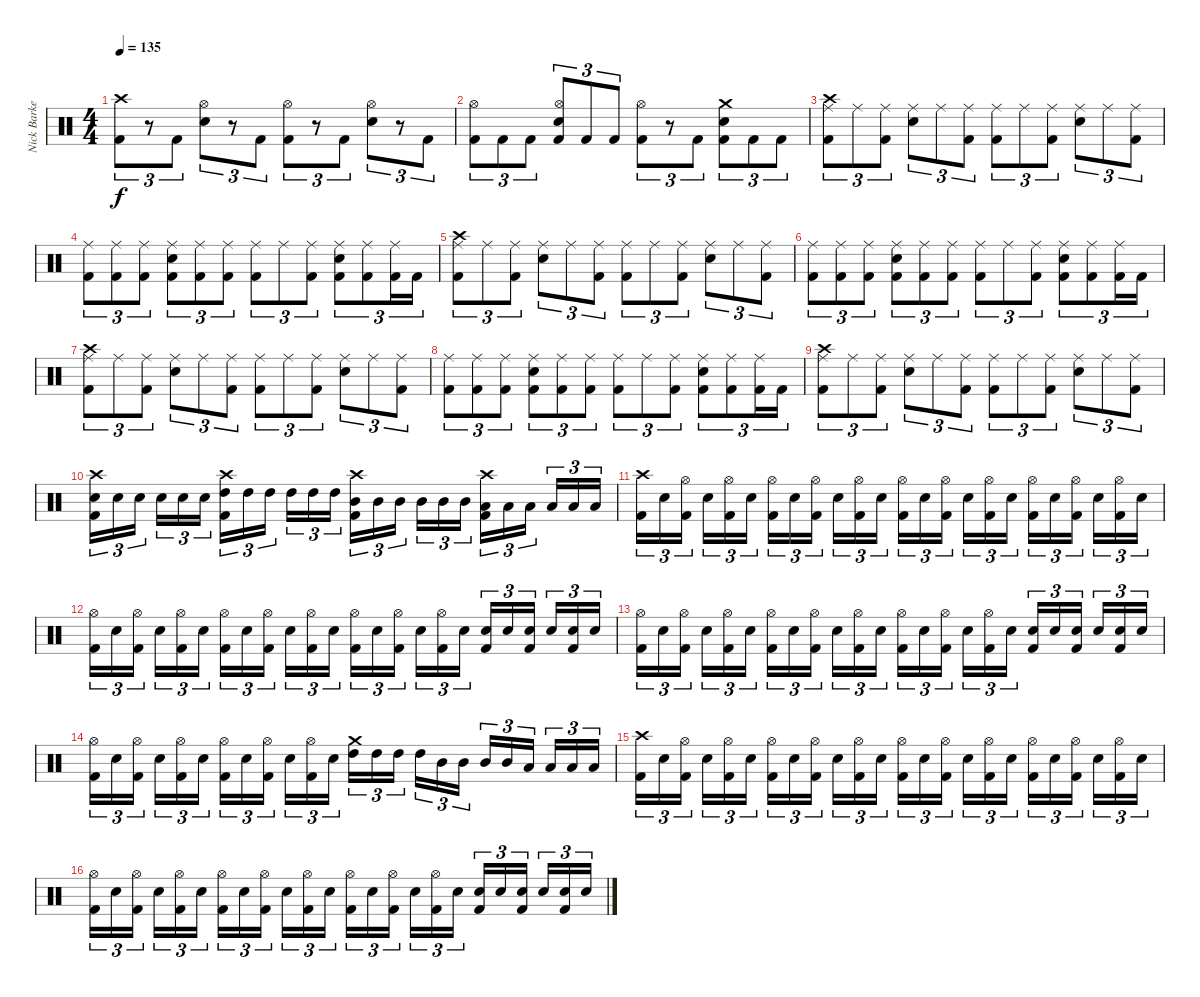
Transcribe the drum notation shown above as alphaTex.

\track ("Nick Barker" "Nick Barke") {instrument percussion}
\staff {score}
\articulation defaults
\ts (4 4)
\tempo 135
\clef neutral
\ks c
("Crash high (hit)" "Kick (hit) 2").8{tu (3 2) dy f} r.8{tu (3 2)} "Kick (hit) 2".8{tu (3 2)} ("Hi-Hat (open)" "Electric Snare (hit)").8{tu (3 2)} r.8{tu (3 2)} "Kick (hit) 2".8{tu (3 2)} ("Hi-Hat (open)" "Kick (hit) 2").8{tu (3 2)} r.8{tu (3 2)} "Kick (hit) 2".8{tu (3 2)} ("Hi-Hat (open)" "Electric Snare (hit)").8{tu (3 2)} r.8{tu (3 2)} "Kick (hit) 2".8{tu (3 2)} |
("Hi-Hat (open)" "Kick (hit) 2").8{tu (3 2)} "Kick (hit) 2".8{tu (3 2)} "Kick (hit) 2".8{tu (3 2)} ("Hi-Hat (open)" "Electric Snare (hit)" "Kick (hit) 2").8{tu (3 2)} "Kick (hit) 2".8{tu (3 2)} "Kick (hit) 2".8{tu (3 2)} ("Hi-Hat (open)" "Kick (hit) 2").8{tu (3 2)} r.8{tu (3 2)} "Kick (hit) 2".8{tu (3 2)} ("Crash medium (hit)" "Electric Snare (hit)" "Kick (hit) 2").8{tu (3 2)} "Kick (hit) 2".8{tu (3 2)} "Kick (hit) 2".8{tu (3 2)} |
("Crash high (hit)" "Ride (middle)" "Kick (hit) 2").8{tu (3 2)} "Ride (middle)".8{tu (3 2)} ("Ride (middle)" "Kick (hit) 2").8{tu (3 2)} ("Ride (middle)" "Electric Snare (hit)").8{tu (3 2)} "Ride (middle)".8{tu (3 2)} ("Ride (middle)" "Kick (hit) 2").8{tu (3 2)} ("Ride (middle)" "Kick (hit) 2").8{tu (3 2)} "Ride (middle)".8{tu (3 2)} ("Ride (middle)" "Kick (hit) 2").8{tu (3 2)} ("Ride (middle)" "Electric Snare (hit)").8{tu (3 2)} "Ride (middle)".8{tu (3 2)} ("Ride (middle)" "Kick (hit) 2").8{tu (3 2)} |
("Ride (middle)" "Kick (hit) 2").8{tu (3 2)} ("Ride (middle)" "Kick (hit) 2").8{tu (3 2)} ("Ride (middle)" "Kick (hit) 2").8{tu (3 2)} ("Ride (middle)" "Electric Snare (hit)" "Kick (hit) 2").8{tu (3 2)} ("Ride (middle)" "Kick (hit) 2").8{tu (3 2)} ("Ride (middle)" "Kick (hit) 2").8{tu (3 2)} ("Ride (middle)" "Kick (hit) 2").8{tu (3 2)} "Ride (middle)".8{tu (3 2)} ("Ride (middle)" "Kick (hit) 2").8{tu (3 2)} ("Ride (middle)" "Electric Snare (hit)" "Kick (hit) 2").8{tu (3 2)} ("Ride (middle)" "Kick (hit) 2").8{tu (3 2)} ("Ride (middle)" "Kick (hit) 2").16{tu (3 2)} "Kick (hit) 2".16{tu (3 2)} |
("Crash high (hit)" "Ride (middle)" "Kick (hit) 2").8{tu (3 2)} "Ride (middle)".8{tu (3 2)} ("Ride (middle)" "Kick (hit) 2").8{tu (3 2)} ("Ride (middle)" "Electric Snare (hit)").8{tu (3 2)} "Ride (middle)".8{tu (3 2)} ("Ride (middle)" "Kick (hit) 2").8{tu (3 2)} ("Ride (middle)" "Kick (hit) 2").8{tu (3 2)} "Ride (middle)".8{tu (3 2)} ("Ride (middle)" "Kick (hit) 2").8{tu (3 2)} ("Ride (middle)" "Electric Snare (hit)").8{tu (3 2)} "Ride (middle)".8{tu (3 2)} ("Ride (middle)" "Kick (hit) 2").8{tu (3 2)} |
("Ride (middle)" "Kick (hit) 2").8{tu (3 2)} ("Ride (middle)" "Kick (hit) 2").8{tu (3 2)} ("Ride (middle)" "Kick (hit) 2").8{tu (3 2)} ("Ride (middle)" "Electric Snare (hit)" "Kick (hit) 2").8{tu (3 2)} ("Ride (middle)" "Kick (hit) 2").8{tu (3 2)} ("Ride (middle)" "Kick (hit) 2").8{tu (3 2)} ("Ride (middle)" "Kick (hit) 2").8{tu (3 2)} "Ride (middle)".8{tu (3 2)} ("Ride (middle)" "Kick (hit) 2").8{tu (3 2)} ("Ride (middle)" "Electric Snare (hit)" "Kick (hit) 2").8{tu (3 2)} ("Ride (middle)" "Kick (hit) 2").8{tu (3 2)} ("Ride (middle)" "Kick (hit) 2").16{tu (3 2)} "Kick (hit) 2".16{tu (3 2)} |
("Crash high (hit)" "Ride (middle)" "Kick (hit) 2").8{tu (3 2)} "Ride (middle)".8{tu (3 2)} ("Ride (middle)" "Kick (hit) 2").8{tu (3 2)} ("Ride (middle)" "Electric Snare (hit)").8{tu (3 2)} "Ride (middle)".8{tu (3 2)} ("Ride (middle)" "Kick (hit) 2").8{tu (3 2)} ("Ride (middle)" "Kick (hit) 2").8{tu (3 2)} "Ride (middle)".8{tu (3 2)} ("Ride (middle)" "Kick (hit) 2").8{tu (3 2)} ("Ride (middle)" "Electric Snare (hit)").8{tu (3 2)} "Ride (middle)".8{tu (3 2)} ("Ride (middle)" "Kick (hit) 2").8{tu (3 2)} |
("Ride (middle)" "Kick (hit) 2").8{tu (3 2)} ("Ride (middle)" "Kick (hit) 2").8{tu (3 2)} ("Ride (middle)" "Kick (hit) 2").8{tu (3 2)} ("Ride (middle)" "Electric Snare (hit)" "Kick (hit) 2").8{tu (3 2)} ("Ride (middle)" "Kick (hit) 2").8{tu (3 2)} ("Ride (middle)" "Kick (hit) 2").8{tu (3 2)} ("Ride (middle)" "Kick (hit) 2").8{tu (3 2)} "Ride (middle)".8{tu (3 2)} ("Ride (middle)" "Kick (hit) 2").8{tu (3 2)} ("Ride (middle)" "Electric Snare (hit)" "Kick (hit) 2").8{tu (3 2)} ("Ride (middle)" "Kick (hit) 2").8{tu (3 2)} ("Ride (middle)" "Kick (hit) 2").16{tu (3 2)} "Kick (hit) 2".16{tu (3 2)} |
("Crash high (hit)" "Ride (middle)" "Kick (hit) 2").8{tu (3 2)} "Ride (middle)".8{tu (3 2)} ("Ride (middle)" "Kick (hit) 2").8{tu (3 2)} ("Ride (middle)" "Electric Snare (hit)").8{tu (3 2)} "Ride (middle)".8{tu (3 2)} ("Ride (middle)" "Kick (hit) 2").8{tu (3 2)} ("Ride (middle)" "Kick (hit) 2").8{tu (3 2)} "Ride (middle)".8{tu (3 2)} ("Ride (middle)" "Kick (hit) 2").8{tu (3 2)} ("Ride (middle)" "Electric Snare (hit)").8{tu (3 2)} "Ride (middle)".8{tu (3 2)} ("Ride (middle)" "Kick (hit) 2").8{tu (3 2)} |
("Crash high (hit)" "Electric Snare (hit)" "Kick (hit) 2").16{tu (3 2)} "Electric Snare (hit)".16{tu (3 2)} "Electric Snare (hit)".16{tu (3 2)} "Electric Snare (hit)".16{tu (3 2)} "Electric Snare (hit)".16{tu (3 2)} "Electric Snare (hit)".16{tu (3 2)} ("Crash high (hit)" "High Tom (hit)" "Kick (hit) 2").16{tu (3 2)} "High Tom (hit)".16{tu (3 2)} "High Tom (hit)".16{tu (3 2)} "High Tom (hit)".16{tu (3 2)} "High Tom (hit)".16{tu (3 2)} "High Tom (hit)".16{tu (3 2)} ("Crash high (hit)" "Mid Tom (hit)" "Kick (hit) 2").16{tu (3 2)} "Mid Tom (hit)".16{tu (3 2)} "Mid Tom (hit)".16{tu (3 2)} "Mid Tom (hit)".16{tu (3 2)} "Mid Tom (hit)".16{tu (3 2)} "Mid Tom (hit)".16{tu (3 2)} ("Crash high (hit)" "Low Tom (hit)" "Kick (hit) 2").16{tu (3 2)} "Low Tom (hit)".16{tu (3 2)} "Low Tom (hit)".16{tu (3 2)} "Low Tom (hit)".16{tu (3 2)} "Low Tom (hit)".16{tu (3 2)} "Low Tom (hit)".16{tu (3 2)} |
\section ("" "")
("Crash high (hit)" "Kick (hit) 2").16{tu (3 2)} "Electric Snare (hit)".16{tu (3 2)} ("Hi-Hat (open)" "Kick (hit) 2").16{tu (3 2)} "Electric Snare (hit)".16{tu (3 2)} ("Hi-Hat (open)" "Kick (hit) 2").16{tu (3 2)} "Electric Snare (hit)".16{tu (3 2)} ("Hi-Hat (open)" "Kick (hit) 2").16{tu (3 2)} "Electric Snare (hit)".16{tu (3 2)} ("Hi-Hat (open)" "Kick (hit) 2").16{tu (3 2)} "Electric Snare (hit)".16{tu (3 2)} ("Hi-Hat (open)" "Kick (hit) 2").16{tu (3 2)} "Electric Snare (hit)".16{tu (3 2)} ("Hi-Hat (open)" "Kick (hit) 2").16{tu (3 2)} "Electric Snare (hit)".16{tu (3 2)} ("Hi-Hat (open)" "Kick (hit) 2").16{tu (3 2)} "Electric Snare (hit)".16{tu (3 2)} ("Hi-Hat (open)" "Kick (hit) 2").16{tu (3 2)} "Electric Snare (hit)".16{tu (3 2)} ("Hi-Hat (open)" "Kick (hit) 2").16{tu (3 2)} "Electric Snare (hit)".16{tu (3 2)} ("Hi-Hat (open)" "Kick (hit) 2").16{tu (3 2)} "Electric Snare (hit)".16{tu (3 2)} ("Hi-Hat (open)" "Kick (hit) 2").16{tu (3 2)} "Electric Snare (hit)".16{tu (3 2)} |
("Hi-Hat (open)" "Kick (hit) 2").16{tu (3 2)} "Electric Snare (hit)".16{tu (3 2)} ("Hi-Hat (open)" "Kick (hit) 2").16{tu (3 2)} "Electric Snare (hit)".16{tu (3 2)} ("Hi-Hat (open)" "Kick (hit) 2").16{tu (3 2)} "Electric Snare (hit)".16{tu (3 2)} ("Hi-Hat (open)" "Kick (hit) 2").16{tu (3 2)} "Electric Snare (hit)".16{tu (3 2)} ("Hi-Hat (open)" "Kick (hit) 2").16{tu (3 2)} "Electric Snare (hit)".16{tu (3 2)} ("Hi-Hat (open)" "Kick (hit) 2").16{tu (3 2)} "Electric Snare (hit)".16{tu (3 2)} ("Hi-Hat (open)" "Kick (hit) 2").16{tu (3 2)} "Electric Snare (hit)".16{tu (3 2)} ("Hi-Hat (open)" "Kick (hit) 2").16{tu (3 2)} "Electric Snare (hit)".16{tu (3 2)} ("Hi-Hat (open)" "Kick (hit) 2").16{tu (3 2)} "Electric Snare (hit)".16{tu (3 2)} ("Electric Snare (hit)" "Kick (hit) 2").16{tu (3 2)} "Electric Snare (hit)".16{tu (3 2)} ("Electric Snare (hit)" "Kick (hit) 2").16{tu (3 2)} "Electric Snare (hit)".16{tu (3 2)} ("Electric Snare (hit)" "Kick (hit) 2").16{tu (3 2)} "Electric Snare (hit)".16{tu (3 2)} |
("Hi-Hat (open)" "Kick (hit) 2").16{tu (3 2)} "Electric Snare (hit)".16{tu (3 2)} ("Hi-Hat (open)" "Kick (hit) 2").16{tu (3 2)} "Electric Snare (hit)".16{tu (3 2)} ("Hi-Hat (open)" "Kick (hit) 2").16{tu (3 2)} "Electric Snare (hit)".16{tu (3 2)} ("Hi-Hat (open)" "Kick (hit) 2").16{tu (3 2)} "Electric Snare (hit)".16{tu (3 2)} ("Hi-Hat (open)" "Kick (hit) 2").16{tu (3 2)} "Electric Snare (hit)".16{tu (3 2)} ("Hi-Hat (open)" "Kick (hit) 2").16{tu (3 2)} "Electric Snare (hit)".16{tu (3 2)} ("Hi-Hat (open)" "Kick (hit) 2").16{tu (3 2)} "Electric Snare (hit)".16{tu (3 2)} ("Hi-Hat (open)" "Kick (hit) 2").16{tu (3 2)} "Electric Snare (hit)".16{tu (3 2)} ("Hi-Hat (open)" "Kick (hit) 2").16{tu (3 2)} "Electric Snare (hit)".16{tu (3 2)} ("Electric Snare (hit)" "Kick (hit) 2").16{tu (3 2)} "Electric Snare (hit)".16{tu (3 2)} ("Electric Snare (hit)" "Kick (hit) 2").16{tu (3 2)} "Electric Snare (hit)".16{tu (3 2)} ("Electric Snare (hit)" "Kick (hit) 2").16{tu (3 2)} "Electric Snare (hit)".16{tu (3 2)} |
("Hi-Hat (open)" "Kick (hit) 2").16{tu (3 2)} "Electric Snare (hit)".16{tu (3 2)} ("Hi-Hat (open)" "Kick (hit) 2").16{tu (3 2)} "Electric Snare (hit)".16{tu (3 2)} ("Hi-Hat (open)" "Kick (hit) 2").16{tu (3 2)} "Electric Snare (hit)".16{tu (3 2)} ("Hi-Hat (open)" "Kick (hit) 2").16{tu (3 2)} "Electric Snare (hit)".16{tu (3 2)} ("Hi-Hat (open)" "Kick (hit) 2").16{tu (3 2)} "Electric Snare (hit)".16{tu (3 2)} ("Hi-Hat (open)" "Kick (hit) 2").16{tu (3 2)} "Electric Snare (hit)".16{tu (3 2)} ("Crash medium (hit)" "High Tom (hit)").16{tu (3 2)} "High Tom (hit)".16{tu (3 2)} "High Tom (hit)".16{tu (3 2)} "High Tom (hit)".16{tu (3 2)} "Mid Tom (hit)".16{tu (3 2)} "Mid Tom (hit)".16{tu (3 2)} "Mid Tom (hit)".16{tu (3 2)} "Mid Tom (hit)".16{tu (3 2)} "Low Tom (hit)".16{tu (3 2)} "Low Tom (hit)".16{tu (3 2)} "Low Tom (hit)".16{tu (3 2)} "Low Tom (hit)".16{tu (3 2)} |
("Crash high (hit)" "Kick (hit) 2").16{tu (3 2)} "Electric Snare (hit)".16{tu (3 2)} ("Hi-Hat (open)" "Kick (hit) 2").16{tu (3 2)} "Electric Snare (hit)".16{tu (3 2)} ("Hi-Hat (open)" "Kick (hit) 2").16{tu (3 2)} "Electric Snare (hit)".16{tu (3 2)} ("Hi-Hat (open)" "Kick (hit) 2").16{tu (3 2)} "Electric Snare (hit)".16{tu (3 2)} ("Hi-Hat (open)" "Kick (hit) 2").16{tu (3 2)} "Electric Snare (hit)".16{tu (3 2)} ("Hi-Hat (open)" "Kick (hit) 2").16{tu (3 2)} "Electric Snare (hit)".16{tu (3 2)} ("Hi-Hat (open)" "Kick (hit) 2").16{tu (3 2)} "Electric Snare (hit)".16{tu (3 2)} ("Hi-Hat (open)" "Kick (hit) 2").16{tu (3 2)} "Electric Snare (hit)".16{tu (3 2)} ("Hi-Hat (open)" "Kick (hit) 2").16{tu (3 2)} "Electric Snare (hit)".16{tu (3 2)} ("Hi-Hat (open)" "Kick (hit) 2").16{tu (3 2)} "Electric Snare (hit)".16{tu (3 2)} ("Hi-Hat (open)" "Kick (hit) 2").16{tu (3 2)} "Electric Snare (hit)".16{tu (3 2)} ("Hi-Hat (open)" "Kick (hit) 2").16{tu (3 2)} "Electric Snare (hit)".16{tu (3 2)} |
("Hi-Hat (open)" "Kick (hit) 2").16{tu (3 2)} "Electric Snare (hit)".16{tu (3 2)} ("Hi-Hat (open)" "Kick (hit) 2").16{tu (3 2)} "Electric Snare (hit)".16{tu (3 2)} ("Hi-Hat (open)" "Kick (hit) 2").16{tu (3 2)} "Electric Snare (hit)".16{tu (3 2)} ("Hi-Hat (open)" "Kick (hit) 2").16{tu (3 2)} "Electric Snare (hit)".16{tu (3 2)} ("Hi-Hat (open)" "Kick (hit) 2").16{tu (3 2)} "Electric Snare (hit)".16{tu (3 2)} ("Hi-Hat (open)" "Kick (hit) 2").16{tu (3 2)} "Electric Snare (hit)".16{tu (3 2)} ("Hi-Hat (open)" "Kick (hit) 2").16{tu (3 2)} "Electric Snare (hit)".16{tu (3 2)} ("Hi-Hat (open)" "Kick (hit) 2").16{tu (3 2)} "Electric Snare (hit)".16{tu (3 2)} ("Hi-Hat (open)" "Kick (hit) 2").16{tu (3 2)} "Electric Snare (hit)".16{tu (3 2)} ("Electric Snare (hit)" "Kick (hit) 2").16{tu (3 2)} "Electric Snare (hit)".16{tu (3 2)} ("Electric Snare (hit)" "Kick (hit) 2").16{tu (3 2)} "Electric Snare (hit)".16{tu (3 2)} ("Electric Snare (hit)" "Kick (hit) 2").16{tu (3 2)} "Electric Snare (hit)".16{tu (3 2)}
